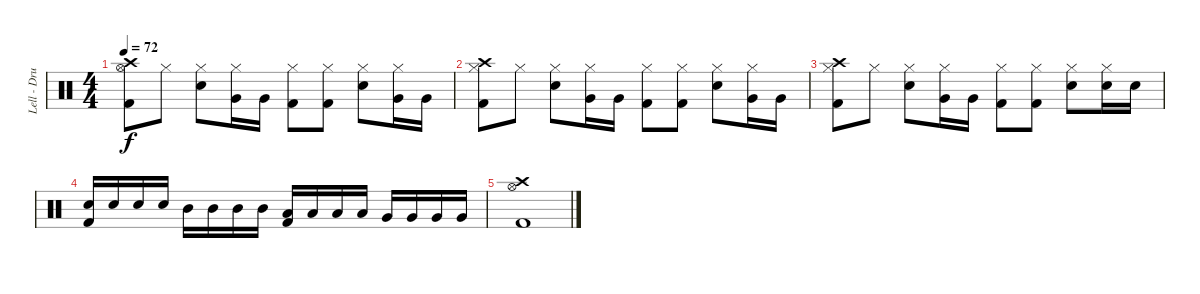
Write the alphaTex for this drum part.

\track ("Lell - Drums" "Lell - Dru") {instrument percussion}
\staff {score}
\articulation defaults
\ts (4 4)
\tempo 72
\clef neutral
\ks c
("Crash high (hit)" "Hi-Hat (open)" "Kick (hit) 2").8{dy f} "Hi-Hat (closed)".8 ("Hi-Hat (closed)" "Snare (hit) 2").8 ("Hi-Hat (closed)" "Very Low Tom (hit)").16 "Very Low Tom (hit)".16 ("Hi-Hat (closed)" "Kick (hit) 2").8 ("Hi-Hat (closed)" "Kick (hit) 2").8 ("Hi-Hat (closed)" "Snare (hit) 2").8 ("Hi-Hat (closed)" "Very Low Tom (hit)").16 "Very Low Tom (hit)".16 |
("Crash high (hit)" "Hi-Hat (closed)" "Kick (hit) 2").8 "Hi-Hat (closed)".8 ("Hi-Hat (closed)" "Snare (hit) 2").8 ("Hi-Hat (closed)" "Very Low Tom (hit)").16 "Very Low Tom (hit)".16 ("Hi-Hat (closed)" "Kick (hit) 2").8 ("Hi-Hat (closed)" "Kick (hit) 2").8 ("Hi-Hat (closed)" "Snare (hit) 2").8 ("Hi-Hat (closed)" "Very Low Tom (hit)").16 "Very Low Tom (hit)".16 |
("Crash high (hit)" "Hi-Hat (closed)" "Kick (hit) 2").8 "Hi-Hat (closed)".8 ("Hi-Hat (closed)" "Snare (hit) 2").8 ("Hi-Hat (closed)" "Very Low Tom (hit)").16 "Very Low Tom (hit)".16 ("Hi-Hat (closed)" "Kick (hit) 2").8 ("Hi-Hat (closed)" "Kick (hit) 2").8 ("Hi-Hat (closed)" "Snare (hit) 2").8 ("Hi-Hat (closed)" "Snare (hit) 2").16 "Snare (hit) 2".16 |
("Snare (hit) 2" "Kick (hit) 2").16 "Snare (hit) 2".16 "Snare (hit) 2".16 "Snare (hit) 2".16 "Mid Tom (hit)".16 "Mid Tom (hit)".16 "Mid Tom (hit)".16 "Mid Tom (hit)".16 ("Low Tom (hit)" "Kick (hit) 2").16 "Low Tom (hit)".16 "Low Tom (hit)".16 "Low Tom (hit)".16 "Very Low Tom (hit)".16 "Very Low Tom (hit)".16 "Very Low Tom (hit)".16 "Very Low Tom (hit)".16 |
("Crash high (hit)" "Hi-Hat (open)" "Kick (hit) 2").1
